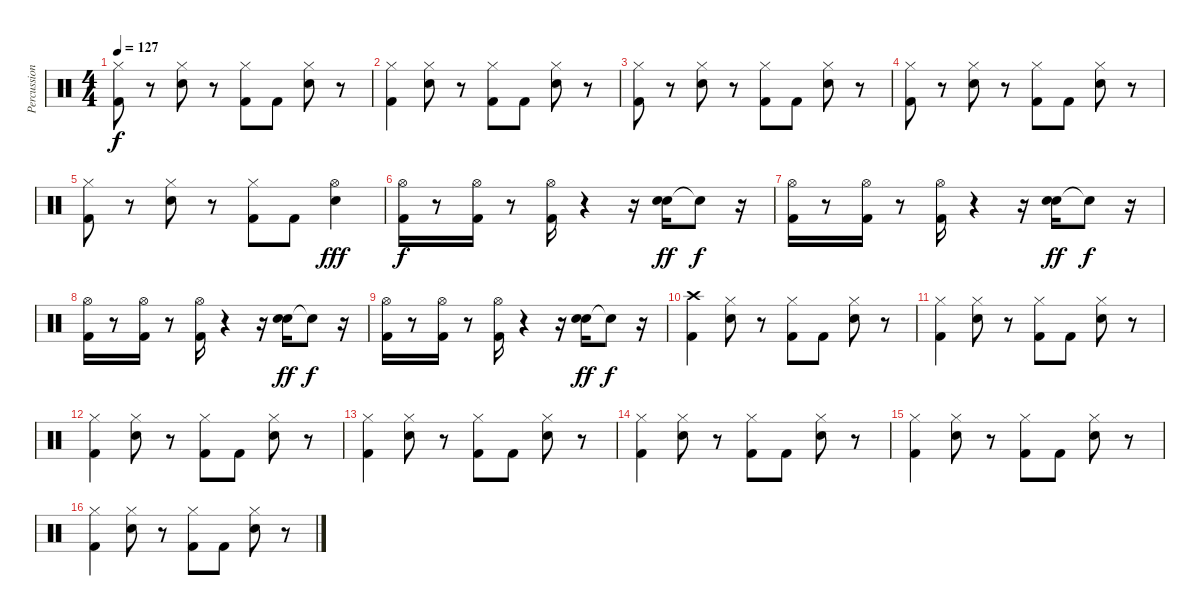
\track ("Percussion" "Percussion") {instrument percussion}
\staff {score}
\articulation defaults
\ts (4 4)
\tempo 127
\clef neutral
\ks c
("Hi-Hat (closed)" "Kick (hit) 2").8{dy f} r.8 ("Hi-Hat (closed)" "Snare (hit) 2").8 r.8 ("Hi-Hat (closed)" "Kick (hit) 2").8 "Kick (hit) 2".8 ("Hi-Hat (closed)" "Snare (hit) 2").8 r.8 |
("Hi-Hat (closed)" "Kick (hit) 2").4 ("Hi-Hat (closed)" "Snare (hit) 2").8 r.8 ("Hi-Hat (closed)" "Kick (hit) 2").8 "Kick (hit) 2".8 ("Hi-Hat (closed)" "Snare (hit) 2").8 r.8 |
("Hi-Hat (closed)" "Kick (hit) 2").8 r.8 ("Hi-Hat (closed)" "Snare (hit) 2").8 r.8 ("Hi-Hat (closed)" "Kick (hit) 2").8 "Kick (hit) 2".8 ("Hi-Hat (closed)" "Snare (hit) 2").8 r.8 |
("Hi-Hat (closed)" "Kick (hit) 2").8 r.8 ("Hi-Hat (closed)" "Snare (hit) 2").8 r.8 ("Hi-Hat (closed)" "Kick (hit) 2").8 "Kick (hit) 2".8 ("Hi-Hat (closed)" "Snare (hit) 2").8 r.8 |
("Hi-Hat (closed)" "Kick (hit) 2").8 r.8 ("Hi-Hat (closed)" "Snare (hit) 2").8 r.8 ("Hi-Hat (closed)" "Kick (hit) 2").8 "Kick (hit) 2".8 ("Hi-Hat (open)" "Electric Snare (hit)").4{dy fff} |
("Hi-Hat (open)" "Kick (hit) 2").16{dy f} r.8 ("Hi-Hat (open)" "Kick (hit) 2").16 r.8 ("Hi-Hat (open)" "Kick (hit) 2").16 r.4 r.16 ("Snare (hit) 2" "Electric Snare (hit)").16{dy ff} "Electric Snare (hit)"{t}.8{dy f} r.16 |
("Hi-Hat (open)" "Kick (hit) 2").16 r.8 ("Hi-Hat (open)" "Kick (hit) 2").16 r.8 ("Hi-Hat (open)" "Kick (hit) 2").16 r.4 r.16 ("Snare (hit) 2" "Electric Snare (hit)").16{dy ff} "Electric Snare (hit)"{t}.8{dy f} r.16 |
("Hi-Hat (open)" "Kick (hit) 2").16 r.8 ("Hi-Hat (open)" "Kick (hit) 2").16 r.8 ("Hi-Hat (open)" "Kick (hit) 2").16 r.4 r.16 ("Snare (hit) 2" "Electric Snare (hit)").16{dy ff} "Electric Snare (hit)"{t}.8{dy f} r.16 |
("Hi-Hat (open)" "Kick (hit) 2").16 r.8 ("Hi-Hat (open)" "Kick (hit) 2").16 r.8 ("Hi-Hat (open)" "Kick (hit) 2").16 r.4 r.16 ("Snare (hit) 2" "Electric Snare (hit)").16{dy ff} "Electric Snare (hit)"{t}.8{dy f} r.16 |
("Crash high (hit)" "Kick (hit) 2").4 ("Hi-Hat (closed)" "Snare (hit) 2").8 r.8 ("Hi-Hat (closed)" "Kick (hit) 2").8 "Kick (hit) 2".8 ("Hi-Hat (closed)" "Snare (hit) 2").8 r.8 |
("Hi-Hat (closed)" "Kick (hit) 2").4 ("Hi-Hat (closed)" "Snare (hit) 2").8 r.8 ("Hi-Hat (closed)" "Kick (hit) 2").8 "Kick (hit) 2".8 ("Hi-Hat (closed)" "Snare (hit) 2").8 r.8 |
("Hi-Hat (closed)" "Kick (hit) 2").4 ("Hi-Hat (closed)" "Snare (hit) 2").8 r.8 ("Hi-Hat (closed)" "Kick (hit) 2").8 "Kick (hit) 2".8 ("Hi-Hat (closed)" "Snare (hit) 2").8 r.8 |
("Hi-Hat (closed)" "Kick (hit) 2").4 ("Hi-Hat (closed)" "Snare (hit) 2").8 r.8 ("Hi-Hat (closed)" "Kick (hit) 2").8 "Kick (hit) 2".8 ("Hi-Hat (closed)" "Snare (hit) 2").8 r.8 |
("Hi-Hat (closed)" "Kick (hit) 2").4 ("Hi-Hat (closed)" "Snare (hit) 2").8 r.8 ("Hi-Hat (closed)" "Kick (hit) 2").8 "Kick (hit) 2".8 ("Hi-Hat (closed)" "Snare (hit) 2").8 r.8 |
("Hi-Hat (closed)" "Kick (hit) 2").4 ("Hi-Hat (closed)" "Snare (hit) 2").8 r.8 ("Hi-Hat (closed)" "Kick (hit) 2").8 "Kick (hit) 2".8 ("Hi-Hat (closed)" "Snare (hit) 2").8 r.8 |
("Hi-Hat (closed)" "Kick (hit) 2").4 ("Hi-Hat (closed)" "Snare (hit) 2").8 r.8 ("Hi-Hat (closed)" "Kick (hit) 2").8 "Kick (hit) 2".8 ("Hi-Hat (closed)" "Snare (hit) 2").8 r.8
